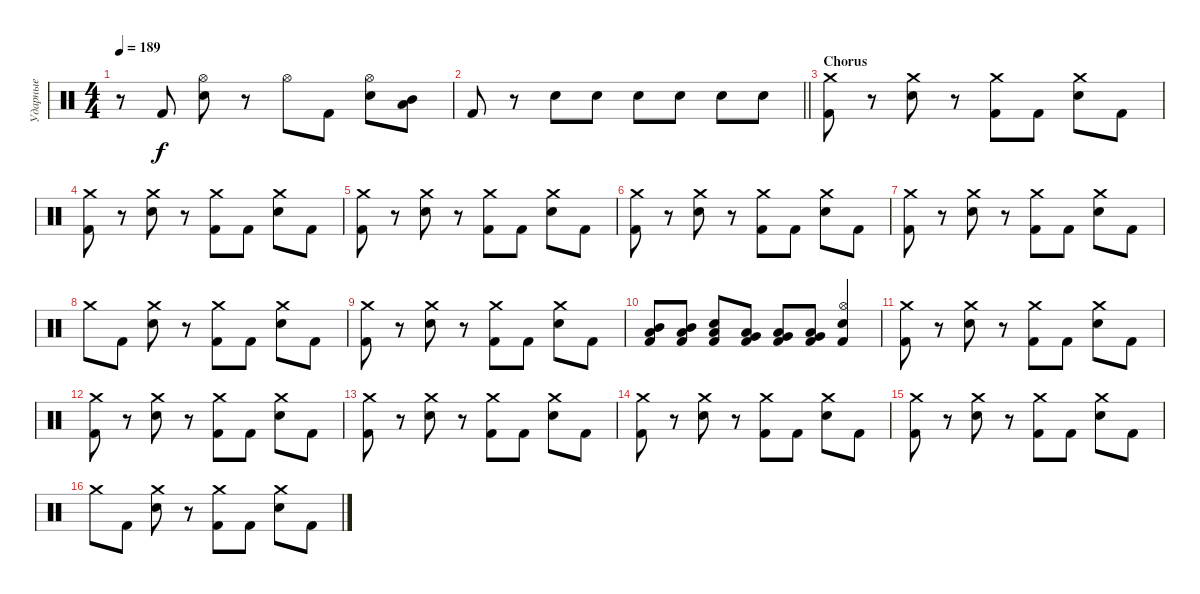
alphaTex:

\track ("Ударные" "Ударные") {instrument percussion}
\staff {score}
\articulation defaults
\ts (4 4)
\tempo 189
\clef neutral
\ks c
r.8{dy f} "Kick (hit) 2".8 ("Hi-Hat (open)" "Electric Snare (hit)").8 r.8 "Hi-Hat (open)".8 "Kick (hit) 2".8 ("Hi-Hat (open)" "Electric Snare (hit)").8 ("Mid Tom (hit)" "Low Tom (hit)").8 |
\barLineRight lightlight "Kick (hit) 2".8
r.8 "Electric Snare (hit)".8 "Electric Snare (hit)".8 "Electric Snare (hit)".8 "Electric Snare (hit)".8 "Electric Snare (hit)".8 "Electric Snare (hit)".8 |
\section ("" "Chorus")
("Crash medium (hit)" "Kick (hit) 2").8 r.8 ("Crash medium (hit)" "Electric Snare (hit)").8 r.8 ("Crash medium (hit)" "Kick (hit) 2").8 "Kick (hit) 2".8 ("Crash medium (hit)" "Electric Snare (hit)").8 "Kick (hit) 2".8 |
("Crash medium (hit)" "Kick (hit) 2").8 r.8 ("Crash medium (hit)" "Electric Snare (hit)").8 r.8 ("Crash medium (hit)" "Kick (hit) 2").8 "Kick (hit) 2".8 ("Crash medium (hit)" "Electric Snare (hit)").8 "Kick (hit) 2".8 |
("Crash medium (hit)" "Kick (hit) 2").8 r.8 ("Crash medium (hit)" "Electric Snare (hit)").8 r.8 ("Crash medium (hit)" "Kick (hit) 2").8 "Kick (hit) 2".8 ("Crash medium (hit)" "Electric Snare (hit)").8 "Kick (hit) 2".8 |
("Crash medium (hit)" "Kick (hit) 2").8 r.8 ("Crash medium (hit)" "Electric Snare (hit)").8 r.8 ("Crash medium (hit)" "Kick (hit) 2").8 "Kick (hit) 2".8 ("Crash medium (hit)" "Electric Snare (hit)").8 "Kick (hit) 2".8 |
("Crash medium (hit)" "Kick (hit) 2").8 r.8 ("Crash medium (hit)" "Electric Snare (hit)").8 r.8 ("Crash medium (hit)" "Kick (hit) 2").8 "Kick (hit) 2".8 ("Crash medium (hit)" "Electric Snare (hit)").8 "Kick (hit) 2".8 |
"Crash medium (hit)".8 "Kick (hit) 2".8 ("Crash medium (hit)" "Electric Snare (hit)").8 r.8 ("Crash medium (hit)" "Kick (hit) 2").8 "Kick (hit) 2".8 ("Crash medium (hit)" "Electric Snare (hit)").8 "Kick (hit) 2".8 |
("Crash medium (hit)" "Kick (hit) 2").8 r.8 ("Crash medium (hit)" "Electric Snare (hit)").8 r.8 ("Crash medium (hit)" "Kick (hit) 2").8 "Kick (hit) 2".8 ("Crash medium (hit)" "Electric Snare (hit)").8 "Kick (hit) 2".8 |
("Low Tom (hit)" "Mid Tom (hit)" "Kick (hit) 2").8 ("Low Tom (hit)" "Mid Tom (hit)" "Kick (hit) 2").8 ("Low Tom (hit)" "Electric Snare (hit)" "Kick (hit) 2").8 ("Very Low Tom (hit)" "Low Tom (hit)" "Kick (hit) 2").8 ("Low Floor Tom (hit)" "Very Low Tom (hit)" "Kick (hit) 2").8 ("Low Floor Tom (hit)" "Very Low Tom (hit)" "Kick (hit) 2").8 ("Hi-Hat (open)" "Electric Snare (hit)" "Kick (hit) 2").4 |
("Crash medium (hit)" "Kick (hit) 2").8 r.8 ("Crash medium (hit)" "Electric Snare (hit)").8 r.8 ("Crash medium (hit)" "Kick (hit) 2").8 "Kick (hit) 2".8 ("Crash medium (hit)" "Electric Snare (hit)").8 "Kick (hit) 2".8 |
("Crash medium (hit)" "Kick (hit) 2").8 r.8 ("Crash medium (hit)" "Electric Snare (hit)").8 r.8 ("Crash medium (hit)" "Kick (hit) 2").8 "Kick (hit) 2".8 ("Crash medium (hit)" "Electric Snare (hit)").8 "Kick (hit) 2".8 |
("Crash medium (hit)" "Kick (hit) 2").8 r.8 ("Crash medium (hit)" "Electric Snare (hit)").8 r.8 ("Crash medium (hit)" "Kick (hit) 2").8 "Kick (hit) 2".8 ("Crash medium (hit)" "Electric Snare (hit)").8 "Kick (hit) 2".8 |
("Crash medium (hit)" "Kick (hit) 2").8 r.8 ("Crash medium (hit)" "Electric Snare (hit)").8 r.8 ("Crash medium (hit)" "Kick (hit) 2").8 "Kick (hit) 2".8 ("Crash medium (hit)" "Electric Snare (hit)").8 "Kick (hit) 2".8 |
("Crash medium (hit)" "Kick (hit) 2").8 r.8 ("Crash medium (hit)" "Electric Snare (hit)").8 r.8 ("Crash medium (hit)" "Kick (hit) 2").8 "Kick (hit) 2".8 ("Crash medium (hit)" "Electric Snare (hit)").8 "Kick (hit) 2".8 |
"Crash medium (hit)".8 "Kick (hit) 2".8 ("Crash medium (hit)" "Electric Snare (hit)").8 r.8 ("Crash medium (hit)" "Kick (hit) 2").8 "Kick (hit) 2".8 ("Crash medium (hit)" "Electric Snare (hit)").8 "Kick (hit) 2".8
